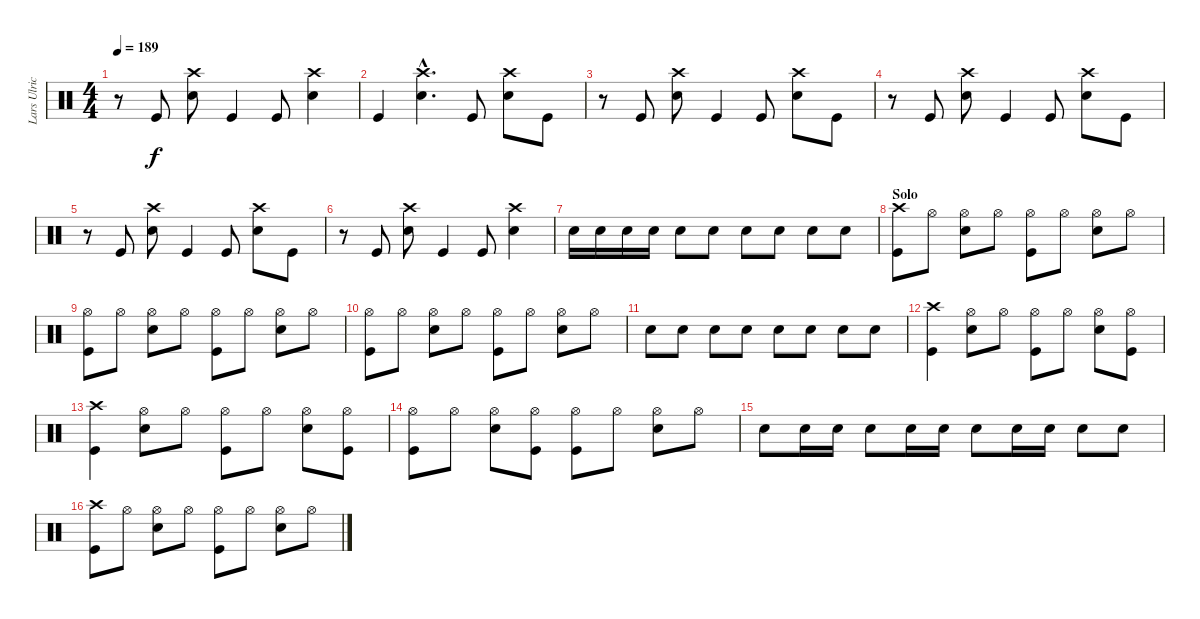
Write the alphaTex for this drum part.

\track ("Lars Ulrich" "Lars Ulric") {instrument percussion}
\staff {score}
\articulation defaults
\ts (4 4)
\tempo 189
\clef neutral
\ks c
r.8{dy f} "Kick (hit)".8 ("Crash high (hit)" "Electric Snare (hit)").8 "Kick (hit)".4 "Kick (hit)".8 ("Crash high (hit)" "Electric Snare (hit)").4 |
"Kick (hit)".4 ("Crash high (hit)"{hac} "Electric Snare (hit)"{hac}).4{d} "Kick (hit)".8 ("Crash high (hit)" "Electric Snare (hit)").8 "Kick (hit)".8 |
r.8 "Kick (hit)".8 ("Crash high (hit)" "Electric Snare (hit)").8 "Kick (hit)".4 "Kick (hit)".8 ("Crash high (hit)" "Electric Snare (hit)").8 "Kick (hit)".8 |
r.8 "Kick (hit)".8 ("Crash high (hit)" "Electric Snare (hit)").8 "Kick (hit)".4 "Kick (hit)".8 ("Crash high (hit)" "Electric Snare (hit)").8 "Kick (hit)".8 |
r.8 "Kick (hit)".8 ("Crash high (hit)" "Electric Snare (hit)").8 "Kick (hit)".4 "Kick (hit)".8 ("Crash high (hit)" "Electric Snare (hit)").8 "Kick (hit)".8 |
r.8 "Kick (hit)".8 ("Crash high (hit)" "Electric Snare (hit)").8 "Kick (hit)".4 "Kick (hit)".8 ("Crash high (hit)" "Electric Snare (hit)").4 |
"Electric Snare (hit)".16 "Electric Snare (hit)".16 "Electric Snare (hit)".16 "Electric Snare (hit)".16 "Electric Snare (hit)".8 "Electric Snare (hit)".8 "Electric Snare (hit)".8 "Electric Snare (hit)".8 "Electric Snare (hit)".8 "Electric Snare (hit)".8 |
\section ("" "Solo")
("Crash high (hit)" "Kick (hit)").8 "Hi-Hat (open)".8 ("Hi-Hat (open)" "Electric Snare (hit)").8 "Hi-Hat (open)".8 ("Hi-Hat (open)" "Kick (hit)").8 "Hi-Hat (open)".8 ("Hi-Hat (open)" "Electric Snare (hit)").8 "Hi-Hat (open)".8 |
("Hi-Hat (open)" "Kick (hit)").8 "Hi-Hat (open)".8 ("Hi-Hat (open)" "Electric Snare (hit)").8 "Hi-Hat (open)".8 ("Hi-Hat (open)" "Kick (hit)").8 "Hi-Hat (open)".8 ("Hi-Hat (open)" "Electric Snare (hit)").8 "Hi-Hat (open)".8 |
("Hi-Hat (open)" "Kick (hit)").8 "Hi-Hat (open)".8 ("Hi-Hat (open)" "Electric Snare (hit)").8 "Hi-Hat (open)".8 ("Hi-Hat (open)" "Kick (hit)").8 "Hi-Hat (open)".8 ("Hi-Hat (open)" "Electric Snare (hit)").8 "Hi-Hat (open)".8 |
"Electric Snare (hit)".8 "Electric Snare (hit)".8 "Electric Snare (hit)".8 "Electric Snare (hit)".8 "Electric Snare (hit)".8 "Electric Snare (hit)".8 "Electric Snare (hit)".8 "Electric Snare (hit)".8 |
("Crash high (hit)" "Kick (hit)").4 ("Hi-Hat (open)" "Electric Snare (hit)").8 "Hi-Hat (open)".8 ("Hi-Hat (open)" "Kick (hit)").8 "Hi-Hat (open)".8 ("Hi-Hat (open)" "Electric Snare (hit)").8 ("Hi-Hat (open)" "Kick (hit)").8 |
("Crash high (hit)" "Kick (hit)").4 ("Hi-Hat (open)" "Electric Snare (hit)").8 "Hi-Hat (open)".8 ("Hi-Hat (open)" "Kick (hit)").8 "Hi-Hat (open)".8 ("Hi-Hat (open)" "Electric Snare (hit)").8 ("Hi-Hat (open)" "Kick (hit)").8 |
("Hi-Hat (open)" "Kick (hit)").8 "Hi-Hat (open)".8 ("Hi-Hat (open)" "Electric Snare (hit)").8 ("Hi-Hat (open)" "Kick (hit)").8 ("Hi-Hat (open)" "Kick (hit)").8 "Hi-Hat (open)".8 ("Hi-Hat (open)" "Electric Snare (hit)").8 "Hi-Hat (open)".8 |
"Electric Snare (hit)".8 "Electric Snare (hit)".16 "Electric Snare (hit)".16 "Electric Snare (hit)".8 "Electric Snare (hit)".16 "Electric Snare (hit)".16 "Electric Snare (hit)".8 "Electric Snare (hit)".16 "Electric Snare (hit)".16 "Electric Snare (hit)".8 "Electric Snare (hit)".8 |
("Crash high (hit)" "Kick (hit)").8 "Hi-Hat (open)".8 ("Hi-Hat (open)" "Electric Snare (hit)").8 "Hi-Hat (open)".8 ("Hi-Hat (open)" "Kick (hit)").8 "Hi-Hat (open)".8 ("Hi-Hat (open)" "Electric Snare (hit)").8 "Hi-Hat (open)".8
